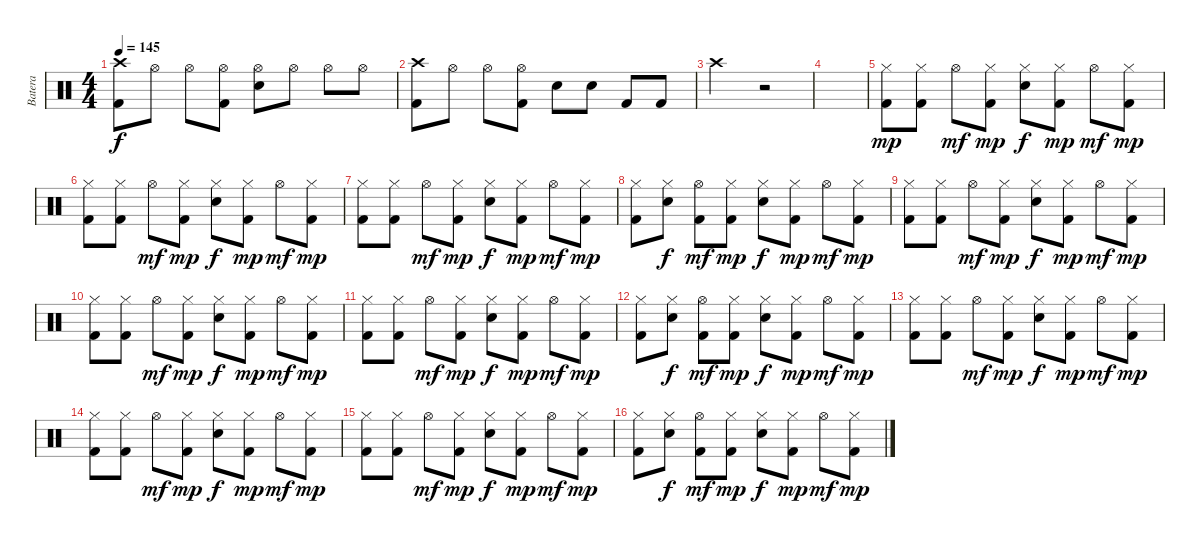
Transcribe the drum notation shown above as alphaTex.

\track ("Batera" "Batera") {instrument percussion}
\staff {score}
\articulation defaults
\ts (4 4)
\tempo 145
\clef neutral
\ks c
("Crash high (hit)" "Kick (hit) 2").8{dy f} "Hi-Hat (open)".8 "Hi-Hat (open)".8 ("Hi-Hat (open)" "Kick (hit) 2").8 ("Hi-Hat (open)" "Electric Snare (hit)").8 "Hi-Hat (open)".8 "Hi-Hat (open)".8 "Hi-Hat (open)".8 |
("Crash high (hit)" "Kick (hit) 2").8 "Hi-Hat (open)".8 "Hi-Hat (open)".8 ("Hi-Hat (open)" "Kick (hit) 2").8 "Electric Snare (hit)".8 "Electric Snare (hit)".8 "Kick (hit) 2".8 "Kick (hit) 2".8 |
"Crash high (hit)".2 r.2 |
|
("Hi-Hat (closed)" "Kick (hit) 2").8{dy mp} ("Hi-Hat (closed)" "Kick (hit) 2").8 "Hi-Hat (open)".8{dy mf} ("Hi-Hat (closed)" "Kick (hit) 2").8{dy mp} ("Hi-Hat (closed)" "Electric Snare (hit)").8{dy f} ("Hi-Hat (closed)" "Kick (hit) 2").8{dy mp} "Hi-Hat (open)".8{dy mf} ("Hi-Hat (closed)" "Kick (hit) 2").8{dy mp} |
("Hi-Hat (closed)" "Kick (hit) 2").8 ("Hi-Hat (closed)" "Kick (hit) 2").8 "Hi-Hat (open)".8{dy mf} ("Hi-Hat (closed)" "Kick (hit) 2").8{dy mp} ("Hi-Hat (closed)" "Electric Snare (hit)").8{dy f} ("Hi-Hat (closed)" "Kick (hit) 2").8{dy mp} "Hi-Hat (open)".8{dy mf} ("Hi-Hat (closed)" "Kick (hit) 2").8{dy mp} |
("Hi-Hat (closed)" "Kick (hit) 2").8 ("Hi-Hat (closed)" "Kick (hit) 2").8 "Hi-Hat (open)".8{dy mf} ("Hi-Hat (closed)" "Kick (hit) 2").8{dy mp} ("Hi-Hat (closed)" "Electric Snare (hit)").8{dy f} ("Hi-Hat (closed)" "Kick (hit) 2").8{dy mp} "Hi-Hat (open)".8{dy mf} ("Hi-Hat (closed)" "Kick (hit) 2").8{dy mp} |
("Hi-Hat (closed)" "Kick (hit) 2").8 ("Hi-Hat (closed)" "Electric Snare (hit)").8{dy f} ("Hi-Hat (open)" "Kick (hit) 2").8{dy mf} ("Hi-Hat (closed)" "Kick (hit) 2").8{dy mp} ("Hi-Hat (closed)" "Electric Snare (hit)").8{dy f} ("Hi-Hat (closed)" "Kick (hit) 2").8{dy mp} "Hi-Hat (open)".8{dy mf} ("Hi-Hat (closed)" "Kick (hit) 2").8{dy mp} |
("Hi-Hat (closed)" "Kick (hit) 2").8 ("Hi-Hat (closed)" "Kick (hit) 2").8 "Hi-Hat (open)".8{dy mf} ("Hi-Hat (closed)" "Kick (hit) 2").8{dy mp} ("Hi-Hat (closed)" "Electric Snare (hit)").8{dy f} ("Hi-Hat (closed)" "Kick (hit) 2").8{dy mp} "Hi-Hat (open)".8{dy mf} ("Hi-Hat (closed)" "Kick (hit) 2").8{dy mp} |
("Hi-Hat (closed)" "Kick (hit) 2").8 ("Hi-Hat (closed)" "Kick (hit) 2").8 "Hi-Hat (open)".8{dy mf} ("Hi-Hat (closed)" "Kick (hit) 2").8{dy mp} ("Hi-Hat (closed)" "Electric Snare (hit)").8{dy f} ("Hi-Hat (closed)" "Kick (hit) 2").8{dy mp} "Hi-Hat (open)".8{dy mf} ("Hi-Hat (closed)" "Kick (hit) 2").8{dy mp} |
("Hi-Hat (closed)" "Kick (hit) 2").8 ("Hi-Hat (closed)" "Kick (hit) 2").8 "Hi-Hat (open)".8{dy mf} ("Hi-Hat (closed)" "Kick (hit) 2").8{dy mp} ("Hi-Hat (closed)" "Electric Snare (hit)").8{dy f} ("Hi-Hat (closed)" "Kick (hit) 2").8{dy mp} "Hi-Hat (open)".8{dy mf} ("Hi-Hat (closed)" "Kick (hit) 2").8{dy mp} |
("Hi-Hat (closed)" "Kick (hit) 2").8 ("Hi-Hat (closed)" "Electric Snare (hit)").8{dy f} ("Hi-Hat (open)" "Kick (hit) 2").8{dy mf} ("Hi-Hat (closed)" "Kick (hit) 2").8{dy mp} ("Hi-Hat (closed)" "Electric Snare (hit)").8{dy f} ("Hi-Hat (closed)" "Kick (hit) 2").8{dy mp} "Hi-Hat (open)".8{dy mf} ("Hi-Hat (closed)" "Kick (hit) 2").8{dy mp} |
("Hi-Hat (closed)" "Kick (hit) 2").8 ("Hi-Hat (closed)" "Kick (hit) 2").8 "Hi-Hat (open)".8{dy mf} ("Hi-Hat (closed)" "Kick (hit) 2").8{dy mp} ("Hi-Hat (closed)" "Electric Snare (hit)").8{dy f} ("Hi-Hat (closed)" "Kick (hit) 2").8{dy mp} "Hi-Hat (open)".8{dy mf} ("Hi-Hat (closed)" "Kick (hit) 2").8{dy mp} |
("Hi-Hat (closed)" "Kick (hit) 2").8 ("Hi-Hat (closed)" "Kick (hit) 2").8 "Hi-Hat (open)".8{dy mf} ("Hi-Hat (closed)" "Kick (hit) 2").8{dy mp} ("Hi-Hat (closed)" "Electric Snare (hit)").8{dy f} ("Hi-Hat (closed)" "Kick (hit) 2").8{dy mp} "Hi-Hat (open)".8{dy mf} ("Hi-Hat (closed)" "Kick (hit) 2").8{dy mp} |
("Hi-Hat (closed)" "Kick (hit) 2").8 ("Hi-Hat (closed)" "Kick (hit) 2").8 "Hi-Hat (open)".8{dy mf} ("Hi-Hat (closed)" "Kick (hit) 2").8{dy mp} ("Hi-Hat (closed)" "Electric Snare (hit)").8{dy f} ("Hi-Hat (closed)" "Kick (hit) 2").8{dy mp} "Hi-Hat (open)".8{dy mf} ("Hi-Hat (closed)" "Kick (hit) 2").8{dy mp} |
("Hi-Hat (closed)" "Kick (hit) 2").8 ("Hi-Hat (closed)" "Electric Snare (hit)").8{dy f} ("Hi-Hat (open)" "Kick (hit) 2").8{dy mf} ("Hi-Hat (closed)" "Kick (hit) 2").8{dy mp} ("Hi-Hat (closed)" "Electric Snare (hit)").8{dy f} ("Hi-Hat (closed)" "Kick (hit) 2").8{dy mp} "Hi-Hat (open)".8{dy mf} ("Hi-Hat (closed)" "Kick (hit) 2").8{dy mp}
